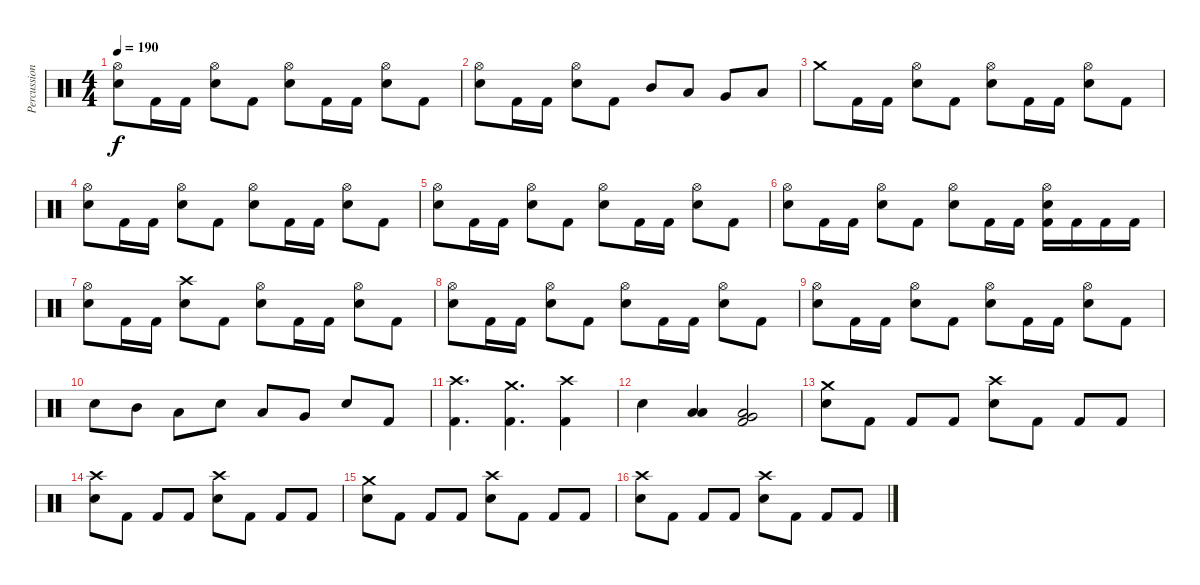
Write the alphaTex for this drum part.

\track ("Percussions" "Percussion") {instrument percussion}
\staff {score}
\articulation defaults
\ts (4 4)
\tempo 190
\clef neutral
\ks c
("Hi-Hat (open)" "Electric Snare (hit)").8{dy f} "Kick (hit) 2".16 "Kick (hit) 2".16 ("Hi-Hat (open)" "Electric Snare (hit)").8 "Kick (hit) 2".8 ("Hi-Hat (open)" "Electric Snare (hit)").8 "Kick (hit) 2".16 "Kick (hit) 2".16 ("Hi-Hat (open)" "Electric Snare (hit)").8 "Kick (hit) 2".8 |
("Hi-Hat (open)" "Electric Snare (hit)").8 "Kick (hit) 2".16 "Kick (hit) 2".16 ("Hi-Hat (open)" "Electric Snare (hit)").8 "Kick (hit) 2".8 "Mid Tom (hit)".8 "Low Tom (hit)".8 "Very Low Tom (hit)".8 "Low Floor Tom (hit)".8 |
"Crash medium (hit)".8 "Kick (hit) 2".16 "Kick (hit) 2".16 ("Hi-Hat (open)" "Electric Snare (hit)").8 "Kick (hit) 2".8 ("Hi-Hat (open)" "Electric Snare (hit)").8 "Kick (hit) 2".16 "Kick (hit) 2".16 ("Hi-Hat (open)" "Electric Snare (hit)").8 "Kick (hit) 2".8 |
("Hi-Hat (open)" "Electric Snare (hit)").8 "Kick (hit) 2".16 "Kick (hit) 2".16 ("Hi-Hat (open)" "Electric Snare (hit)").8 "Kick (hit) 2".8 ("Hi-Hat (open)" "Electric Snare (hit)").8 "Kick (hit) 2".16 "Kick (hit) 2".16 ("Hi-Hat (open)" "Electric Snare (hit)").8 "Kick (hit) 2".8 |
("Hi-Hat (open)" "Electric Snare (hit)").8 "Kick (hit) 2".16 "Kick (hit) 2".16 ("Hi-Hat (open)" "Electric Snare (hit)").8 "Kick (hit) 2".8 ("Hi-Hat (open)" "Electric Snare (hit)").8 "Kick (hit) 2".16 "Kick (hit) 2".16 ("Hi-Hat (open)" "Electric Snare (hit)").8 "Kick (hit) 2".8 |
("Hi-Hat (open)" "Electric Snare (hit)").8 "Kick (hit) 2".16 "Kick (hit) 2".16 ("Hi-Hat (open)" "Electric Snare (hit)").8 "Kick (hit) 2".8 ("Hi-Hat (open)" "Electric Snare (hit)").8 "Kick (hit) 2".16 "Kick (hit) 2".16 ("Hi-Hat (open)" "Electric Snare (hit)" "Kick (hit) 2").16 "Kick (hit) 2".16 "Kick (hit) 2".16 "Kick (hit) 2".16 |
("Hi-Hat (open)" "Electric Snare (hit)").8 "Kick (hit) 2".16 "Kick (hit) 2".16 ("Crash high (hit)" "Electric Snare (hit)").8 "Kick (hit) 2".8 ("Hi-Hat (open)" "Electric Snare (hit)").8 "Kick (hit) 2".16 "Kick (hit) 2".16 ("Hi-Hat (open)" "Electric Snare (hit)").8 "Kick (hit) 2".8 |
("Hi-Hat (open)" "Electric Snare (hit)").8 "Kick (hit) 2".16 "Kick (hit) 2".16 ("Hi-Hat (open)" "Electric Snare (hit)").8 "Kick (hit) 2".8 ("Hi-Hat (open)" "Electric Snare (hit)").8 "Kick (hit) 2".16 "Kick (hit) 2".16 ("Hi-Hat (open)" "Electric Snare (hit)").8 "Kick (hit) 2".8 |
("Hi-Hat (open)" "Electric Snare (hit)").8 "Kick (hit) 2".16 "Kick (hit) 2".16 ("Hi-Hat (open)" "Electric Snare (hit)").8 "Kick (hit) 2".8 ("Hi-Hat (open)" "Electric Snare (hit)").8 "Kick (hit) 2".16 "Kick (hit) 2".16 ("Hi-Hat (open)" "Electric Snare (hit)").8 "Kick (hit) 2".8 |
"Electric Snare (hit)".8 "Mid Tom (hit)".8 "Low Tom (hit)".8 "Electric Snare (hit)".8 "Low Tom (hit)".8 "Very Low Tom (hit)".8 "Electric Snare (hit)".8 "Kick (hit) 2".8 |
("Crash high (hit)" "Kick (hit) 2").4{d} ("Crash medium (hit)" "Kick (hit) 2").4{d} ("Crash high (hit)" "Kick (hit) 2").4 |
"Electric Snare (hit)".4 ("Low Tom (hit)" "Low Floor Tom (hit)").4 ("Very Low Tom (hit)" "Low Floor Tom (hit)" "Kick (hit) 2").2 |
("Crash medium (hit)" "Electric Snare (hit)").8 "Kick (hit) 2".8 "Kick (hit) 2".8 "Kick (hit) 2".8 ("Crash high (hit)" "Electric Snare (hit)").8 "Kick (hit) 2".8 "Kick (hit) 2".8 "Kick (hit) 2".8 |
("Crash high (hit)" "Electric Snare (hit)").8 "Kick (hit) 2".8 "Kick (hit) 2".8 "Kick (hit) 2".8 ("Crash high (hit)" "Electric Snare (hit)").8 "Kick (hit) 2".8 "Kick (hit) 2".8 "Kick (hit) 2".8 |
("Crash medium (hit)" "Electric Snare (hit)").8 "Kick (hit) 2".8 "Kick (hit) 2".8 "Kick (hit) 2".8 ("Crash high (hit)" "Electric Snare (hit)").8 "Kick (hit) 2".8 "Kick (hit) 2".8 "Kick (hit) 2".8 |
("Crash high (hit)" "Electric Snare (hit)").8 "Kick (hit) 2".8 "Kick (hit) 2".8 "Kick (hit) 2".8 ("Crash high (hit)" "Electric Snare (hit)").8 "Kick (hit) 2".8 "Kick (hit) 2".8 "Kick (hit) 2".8
